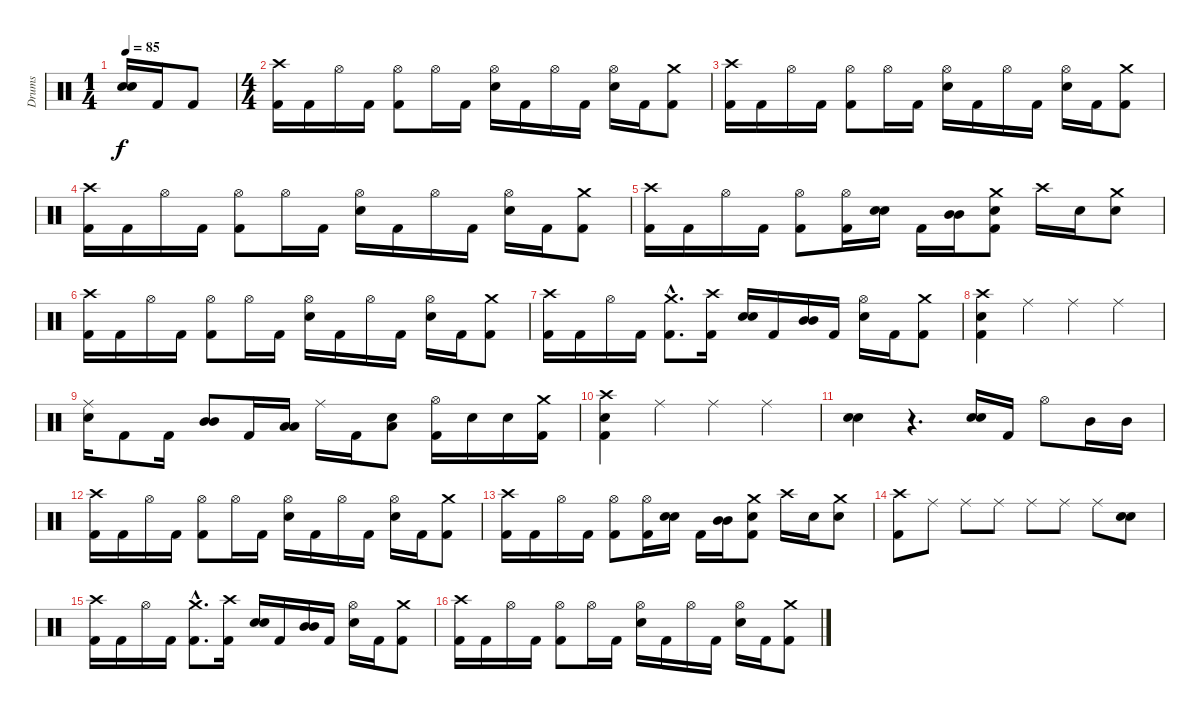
\track ("Drums" "Drums") {instrument percussion}
\staff {score}
\articulation defaults
\ts (1 4)
\tempo 85
\clef neutral
\ks c
("Snare (hit) 2" "Snare (hit) 2").16{bd 240 dy f} "Kick (hit) 2".16 "Kick (hit) 2".8 |
\ts (4 4)
("Crash high (hit)" "Kick (hit) 2").16 "Kick (hit) 2".16 "Hi-Hat (open)".16 "Kick (hit) 2".16 ("Hi-Hat (open)" "Kick (hit) 2").8 "Hi-Hat (open)".16 "Kick (hit) 2".16 ("Hi-Hat (open)" "Snare (hit) 2").16 "Kick (hit) 2".16 "Hi-Hat (open)".16 "Kick (hit) 2".16 ("Hi-Hat (open)" "Snare (hit) 2").16 "Kick (hit) 2".16 ("Crash medium (hit)" "Kick (hit) 2").8 |
("Crash high (hit)" "Kick (hit) 2").16 "Kick (hit) 2".16 "Hi-Hat (open)".16 "Kick (hit) 2".16 ("Hi-Hat (open)" "Kick (hit) 2").8 "Hi-Hat (open)".16 "Kick (hit) 2".16 ("Hi-Hat (open)" "Snare (hit) 2").16 "Kick (hit) 2".16 "Hi-Hat (open)".16 "Kick (hit) 2".16 ("Hi-Hat (open)" "Snare (hit) 2").16 "Kick (hit) 2".16 ("Crash medium (hit)" "Kick (hit) 2").8 |
("Crash high (hit)" "Kick (hit) 2").16 "Kick (hit) 2".16 "Hi-Hat (open)".16 "Kick (hit) 2".16 ("Hi-Hat (open)" "Kick (hit) 2").8 "Hi-Hat (open)".16 "Kick (hit) 2".16 ("Hi-Hat (open)" "Snare (hit) 2").16 "Kick (hit) 2".16 "Hi-Hat (open)".16 "Kick (hit) 2".16 ("Hi-Hat (open)" "Snare (hit) 2").16 "Kick (hit) 2".16 ("Crash medium (hit)" "Kick (hit) 2").8 |
("Crash high (hit)" "Kick (hit) 2").16 "Kick (hit) 2".16 "Hi-Hat (open)".16 "Kick (hit) 2".16 ("Hi-Hat (open)" "Kick (hit) 2").8 ("Hi-Hat (open)" "Kick (hit) 2").16 ("Snare (hit) 2" "Snare (hit) 2").16{bd 240} "Kick (hit) 2".16 ("Mid Tom (hit)" "Mid Tom (hit)").16{bd 240} ("Crash medium (hit)" "Snare (hit) 2" "Kick (hit) 2").8 "Crash high (hit)".16 "Snare (hit) 2".16 ("Crash medium (hit)" "Snare (hit) 2").8 |
("Crash high (hit)" "Kick (hit) 2").16 "Kick (hit) 2".16 "Hi-Hat (open)".16 "Kick (hit) 2".16 ("Hi-Hat (open)" "Kick (hit) 2").8 "Hi-Hat (open)".16 "Kick (hit) 2".16 ("Hi-Hat (open)" "Snare (hit) 2").16 "Kick (hit) 2".16 "Hi-Hat (open)".16 "Kick (hit) 2".16 ("Hi-Hat (open)" "Snare (hit) 2").16 "Kick (hit) 2".16 ("Crash medium (hit)" "Kick (hit) 2").8 |
("Crash high (hit)" "Kick (hit) 2").16 "Kick (hit) 2".16 "Hi-Hat (open)".16 "Kick (hit) 2".16 ("Crash medium (hit)"{hac} "Kick (hit) 2"{hac}).8{d} ("Crash high (hit)" "Kick (hit) 2").16 ("Snare (hit) 2" "Snare (hit) 2").16{bd 240} "Kick (hit) 2".16 ("Mid Tom (hit)" "Mid Tom (hit)").16{bd 240} "Kick (hit) 2".16 ("Hi-Hat (open)" "Snare (hit) 2").16 "Kick (hit) 2".16 ("Crash medium (hit)" "Kick (hit) 2").8 |
("Crash high (hit)" "Snare (hit) 2" "Kick (hit) 2").4 "Ride (middle)".4 "Ride (middle)".4 "Ride (middle)".4 |
("Ride (middle)" "Snare (hit) 2").16 "Kick (hit) 2".8 "Kick (hit) 2".16 ("Mid Tom (hit)" "Mid Tom (hit)").8{bd 240} "Kick (hit) 2".16 ("Low Tom (hit)" "Low Tom (hit)").16{bd 240} "Ride (middle)".16 "Kick (hit) 2".16 ("Low Floor Tom (hit)" "Snare (hit) 2").8 ("Hi-Hat (open)" "Kick (hit) 2").16 "Snare (hit) 2".16 "Snare (hit) 2".16 ("Crash medium (hit)" "Kick (hit) 2").16 |
("Crash high (hit)" "Snare (hit) 2" "Kick (hit) 2").4 "Ride (middle)".4 "Ride (middle)".4 "Ride (middle)".4 |
("Snare (hit) 2" "Snare (hit) 2").4{bd 240} r.4{d} ("Snare (hit) 2" "Snare (hit) 2").16{bd 240} "Kick (hit) 2".16 "Hi-Hat (open)".8 "Mid Tom (hit)".16 "Mid Tom (hit)".16 |
("Crash high (hit)" "Kick (hit) 2").16 "Kick (hit) 2".16 "Hi-Hat (open)".16 "Kick (hit) 2".16 ("Hi-Hat (open)" "Kick (hit) 2").8 "Hi-Hat (open)".16 "Kick (hit) 2".16 ("Hi-Hat (open)" "Snare (hit) 2").16 "Kick (hit) 2".16 "Hi-Hat (open)".16 "Kick (hit) 2".16 ("Hi-Hat (open)" "Snare (hit) 2").16 "Kick (hit) 2".16 ("Crash medium (hit)" "Kick (hit) 2").8 |
("Crash high (hit)" "Kick (hit) 2").16 "Kick (hit) 2".16 "Hi-Hat (open)".16 "Kick (hit) 2".16 ("Hi-Hat (open)" "Kick (hit) 2").8 ("Hi-Hat (open)" "Kick (hit) 2").16 ("Snare (hit) 2" "Snare (hit) 2").16{bd 240} "Kick (hit) 2".16 ("Mid Tom (hit)" "Mid Tom (hit)").16{bd 240} ("Crash medium (hit)" "Snare (hit) 2" "Kick (hit) 2").8 "Crash high (hit)".16 "Snare (hit) 2".16 ("Crash medium (hit)" "Snare (hit) 2").8 |
("Crash high (hit)" "Kick (hit) 2").8 "Ride (middle)".8 "Ride (middle)".8 "Ride (middle)".8 "Ride (middle)".8 "Ride (middle)".8 "Ride (middle)".8 ("Snare (hit) 2" "Snare (hit) 2").8{bd 240} |
("Crash high (hit)" "Kick (hit) 2").16 "Kick (hit) 2".16 "Hi-Hat (open)".16 "Kick (hit) 2".16 ("Crash medium (hit)"{hac} "Kick (hit) 2"{hac}).8{d} ("Crash high (hit)" "Kick (hit) 2").16 ("Snare (hit) 2" "Snare (hit) 2").16{bd 240} "Kick (hit) 2".16 ("Mid Tom (hit)" "Mid Tom (hit)").16{bd 240} "Kick (hit) 2".16 ("Hi-Hat (open)" "Snare (hit) 2").16 "Kick (hit) 2".16 ("Crash medium (hit)" "Kick (hit) 2").8 |
("Crash high (hit)" "Kick (hit) 2").16 "Kick (hit) 2".16 "Hi-Hat (open)".16 "Kick (hit) 2".16 ("Hi-Hat (open)" "Kick (hit) 2").8 "Hi-Hat (open)".16 "Kick (hit) 2".16 ("Hi-Hat (open)" "Snare (hit) 2").16 "Kick (hit) 2".16 "Hi-Hat (open)".16 "Kick (hit) 2".16 ("Hi-Hat (open)" "Snare (hit) 2").16 "Kick (hit) 2".16 ("Crash medium (hit)" "Kick (hit) 2").8
